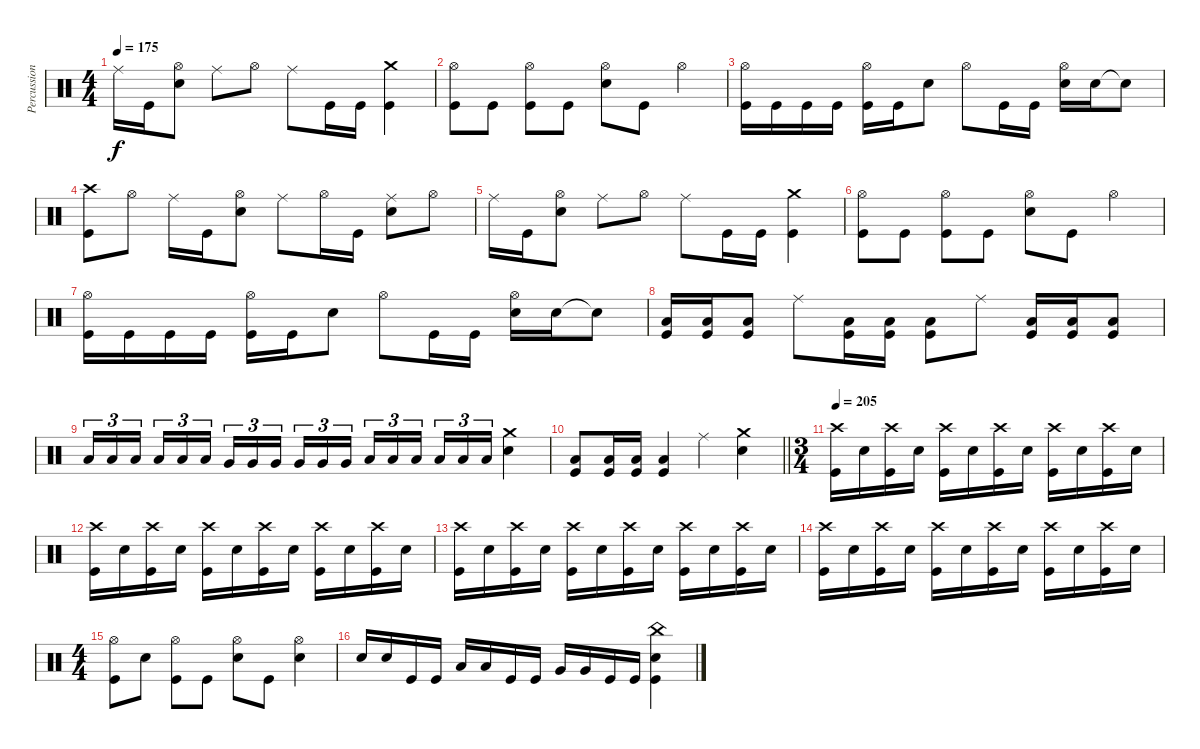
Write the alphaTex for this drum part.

\track ("Percussion" "Percussion") {instrument percussion}
\staff {score}
\articulation defaults
\ts (4 4)
\tempo 175
\clef neutral
\ks c "Ride (middle)".16{dy f} "Kick (hit)".16
("Hi-Hat (open)" "Electric Snare (hit)").8 "Ride (middle)".8 "Hi-Hat (open)".8 "Ride (middle)".8 "Kick (hit)".16 "Kick (hit)".16 ("Crash medium (hit)" "Kick (hit)").4 |
("Hi-Hat (open)" "Kick (hit)").8 "Kick (hit)".8 ("Hi-Hat (open)" "Kick (hit)").8 "Kick (hit)".8 ("Hi-Hat (open)" "Electric Snare (hit)").8 "Kick (hit)".8 "Hi-Hat (open)".4 |
("Hi-Hat (open)" "Kick (hit)").16 "Kick (hit)".16 "Kick (hit)".16 "Kick (hit)".16 ("Hi-Hat (open)" "Kick (hit)").16 "Kick (hit)".16 "Electric Snare (hit)".8 "Hi-Hat (open)".8 "Kick (hit)".16 "Kick (hit)".16 ("Hi-Hat (open)" "Electric Snare (hit)").16 "Electric Snare (hit)".16 "Snare (hit)"{t}.8 |
("Crash high (hit)" "Kick (hit)").8 "Hi-Hat (open)".8 "Ride (middle)".16 "Kick (hit)".16 ("Hi-Hat (open)" "Electric Snare (hit)").8 "Ride (middle)".8 "Hi-Hat (open)".16 "Kick (hit)".16 ("Ride (middle)" "Electric Snare (hit)").8 "Hi-Hat (open)".8 |
"Ride (middle)".16 "Kick (hit)".16 ("Hi-Hat (open)" "Electric Snare (hit)").8 "Ride (middle)".8 "Hi-Hat (open)".8 "Ride (middle)".8 "Kick (hit)".16 "Kick (hit)".16 ("Crash medium (hit)" "Kick (hit)").4 |
("Hi-Hat (open)" "Kick (hit)").8 "Kick (hit)".8 ("Hi-Hat (open)" "Kick (hit)").8 "Kick (hit)".8 ("Hi-Hat (open)" "Electric Snare (hit)").8 "Kick (hit)".8 "Hi-Hat (open)".4 |
("Hi-Hat (open)" "Kick (hit)").16 "Kick (hit)".16 "Kick (hit)".16 "Kick (hit)".16 ("Hi-Hat (open)" "Kick (hit)").16 "Kick (hit)".16 "Electric Snare (hit)".8 "Hi-Hat (open)".8 "Kick (hit)".16 "Kick (hit)".16 ("Hi-Hat (open)" "Electric Snare (hit)").16 "Electric Snare (hit)".16 "Snare (hit)"{t}.8 |
("Low Tom (hit)" "Kick (hit)").16 ("Low Tom (hit)" "Kick (hit)").16 ("Low Tom (hit)" "Kick (hit)").8 "Ride (middle)".8 ("Low Tom (hit)" "Kick (hit)").16 ("Low Tom (hit)" "Kick (hit)").16 ("Low Tom (hit)" "Kick (hit)").8 "Ride (middle)".8 ("Low Tom (hit)" "Kick (hit)").16 ("Low Tom (hit)" "Kick (hit)").16 ("Low Tom (hit)" "Kick (hit)").8 |
"Low Tom (hit)".16{tu (3 2)} "Low Tom (hit)".16{tu (3 2)} "Low Tom (hit)".16{tu (3 2) beam splitsecondary} "Low Tom (hit)".16{tu (3 2)} "Low Tom (hit)".16{tu (3 2)} "Low Tom (hit)".16{tu (3 2)} "Very Low Tom (hit)".16{tu (3 2)} "Very Low Tom (hit)".16{tu (3 2)} "Very Low Tom (hit)".16{tu (3 2) beam splitsecondary} "Very Low Tom (hit)".16{tu (3 2)} "Very Low Tom (hit)".16{tu (3 2)} "Very Low Tom (hit)".16{tu (3 2)} "Low Floor Tom (hit)".16{tu (3 2)} "Low Floor Tom (hit)".16{tu (3 2)} "Low Floor Tom (hit)".16{tu (3 2) beam splitsecondary} "Low Floor Tom (hit)".16{tu (3 2)} "Low Floor Tom (hit)".16{tu (3 2)} "Low Floor Tom (hit)".16{tu (3 2)} ("Crash medium (hit)" "Electric Snare (hit)").4 |
\barLineRight lightlight
("Low Floor Tom (hit)" "Kick (hit)").8 ("Low Floor Tom (hit)" "Kick (hit)").16 ("Low Floor Tom (hit)" "Kick (hit)").16 ("Low Floor Tom (hit)" "Kick (hit)").4 "Ride (middle)".4 ("Crash medium (hit)" "Electric Snare (hit)").4 |
\ts (3 4)
\tempo 205
("Crash high (hit)" "Kick (hit)").16 "Electric Snare (hit)".16 ("Crash high (hit)" "Kick (hit)").16 "Electric Snare (hit)".16 ("Crash high (hit)" "Kick (hit)").16 "Electric Snare (hit)".16 ("Crash high (hit)" "Kick (hit)").16 "Electric Snare (hit)".16 ("Crash high (hit)" "Kick (hit)").16 "Electric Snare (hit)".16 ("Crash high (hit)" "Kick (hit)").16 "Electric Snare (hit)".16 |
("Crash high (hit)" "Kick (hit)").16 "Electric Snare (hit)".16 ("Crash high (hit)" "Kick (hit)").16 "Electric Snare (hit)".16 ("Crash high (hit)" "Kick (hit)").16 "Electric Snare (hit)".16 ("Crash high (hit)" "Kick (hit)").16 "Electric Snare (hit)".16 ("Crash high (hit)" "Kick (hit)").16 "Electric Snare (hit)".16 ("Crash high (hit)" "Kick (hit)").16 "Electric Snare (hit)".16 |
("Crash high (hit)" "Kick (hit)").16 "Electric Snare (hit)".16 ("Crash high (hit)" "Kick (hit)").16 "Electric Snare (hit)".16 ("Crash high (hit)" "Kick (hit)").16 "Electric Snare (hit)".16 ("Crash high (hit)" "Kick (hit)").16 "Electric Snare (hit)".16 ("Crash high (hit)" "Kick (hit)").16 "Electric Snare (hit)".16 ("Crash high (hit)" "Kick (hit)").16 "Electric Snare (hit)".16 |
("Crash high (hit)" "Kick (hit)").16 "Electric Snare (hit)".16 ("Crash high (hit)" "Kick (hit)").16 "Electric Snare (hit)".16 ("Crash high (hit)" "Kick (hit)").16 "Electric Snare (hit)".16 ("Crash high (hit)" "Kick (hit)").16 "Electric Snare (hit)".16 ("Crash high (hit)" "Kick (hit)").16 "Electric Snare (hit)".16 ("Crash high (hit)" "Kick (hit)").16 "Electric Snare (hit)".16 |
\ts (4 4)
("Hi-Hat (open)" "Kick (hit)").8 "Electric Snare (hit)".8 ("Hi-Hat (open)" "Kick (hit)").8 "Kick (hit)".8 ("Hi-Hat (open)" "Electric Snare (hit)").8 "Kick (hit)".8 ("Hi-Hat (open)" "Electric Snare (hit)").4 |
"Electric Snare (hit)".16 "Electric Snare (hit)".16 "Kick (hit)".16 "Kick (hit)".16 "Low Tom (hit)".16 "Low Tom (hit)".16 "Kick (hit)".16 "Kick (hit)".16 "Very Low Tom (hit)".16 "Very Low Tom (hit)".16 "Kick (hit)".16 "Kick (hit)".16 ("China (hit)" "Electric Snare (hit)" "Kick (hit)").4
